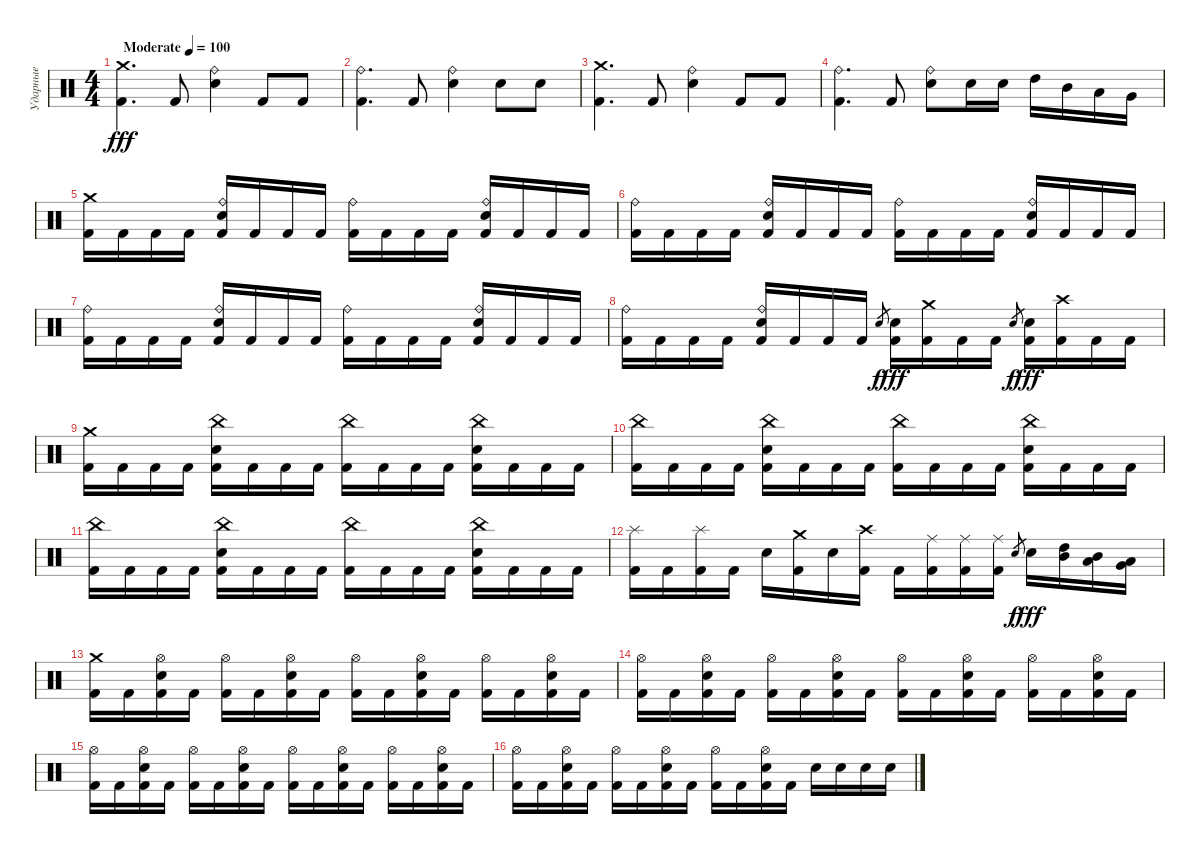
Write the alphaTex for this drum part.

\track ("Ударные" "Ударные") {instrument percussion}
\staff {score}
\articulation defaults
\ts (4 4)
\tempo (100 "Moderate")
\clef neutral
\ks c
("Crash medium (hit)" "Kick (hit) 2").4{d dy fff} "Kick (hit) 2".8 ("Ride (bell)" "Electric Snare (hit)").4 "Kick (hit) 2".8 "Kick (hit) 2".8 |
("Ride (bell)" "Kick (hit) 2").4{d} "Kick (hit) 2".8 ("Ride (bell)" "Electric Snare (hit)").4 "Electric Snare (hit)".8 "Electric Snare (hit)".8 |
("Crash medium (hit)" "Kick (hit) 2").4{d} "Kick (hit) 2".8 ("Ride (bell)" "Electric Snare (hit)").4 "Kick (hit) 2".8 "Kick (hit) 2".8 |
("Ride (bell)" "Kick (hit) 2").4{d} "Kick (hit) 2".8 ("Ride (bell)" "Electric Snare (hit)").8 "Electric Snare (hit)".16 "Electric Snare (hit)".16 "High Tom (hit)".16 "Mid Tom (hit)".16 "Low Tom (hit)".16 "Very Low Tom (hit)".16 |
("Crash medium (hit)" "Kick (hit) 2").16 "Kick (hit) 2".16 "Kick (hit) 2".16 "Kick (hit) 2".16 ("Ride (bell)" "Electric Snare (hit)" "Kick (hit) 2").16 "Kick (hit) 2".16 "Kick (hit) 2".16 "Kick (hit) 2".16 ("Ride (bell)" "Kick (hit) 2").16 "Kick (hit) 2".16 "Kick (hit) 2".16 "Kick (hit) 2".16 ("Ride (bell)" "Electric Snare (hit)" "Kick (hit) 2").16 "Kick (hit) 2".16 "Kick (hit) 2".16 "Kick (hit) 2".16 |
("Ride (bell)" "Kick (hit) 2").16 "Kick (hit) 2".16 "Kick (hit) 2".16 "Kick (hit) 2".16 ("Ride (bell)" "Electric Snare (hit)" "Kick (hit) 2").16 "Kick (hit) 2".16 "Kick (hit) 2".16 "Kick (hit) 2".16 ("Ride (bell)" "Kick (hit) 2").16 "Kick (hit) 2".16 "Kick (hit) 2".16 "Kick (hit) 2".16 ("Ride (bell)" "Electric Snare (hit)" "Kick (hit) 2").16 "Kick (hit) 2".16 "Kick (hit) 2".16 "Kick (hit) 2".16 |
("Ride (bell)" "Kick (hit) 2").16 "Kick (hit) 2".16 "Kick (hit) 2".16 "Kick (hit) 2".16 ("Ride (bell)" "Electric Snare (hit)" "Kick (hit) 2").16 "Kick (hit) 2".16 "Kick (hit) 2".16 "Kick (hit) 2".16 ("Ride (bell)" "Kick (hit) 2").16 "Kick (hit) 2".16 "Kick (hit) 2".16 "Kick (hit) 2".16 ("Ride (bell)" "Electric Snare (hit)" "Kick (hit) 2").16 "Kick (hit) 2".16 "Kick (hit) 2".16 "Kick (hit) 2".16 |
("Ride (bell)" "Kick (hit) 2").16 "Kick (hit) 2".16 "Kick (hit) 2".16 "Kick (hit) 2".16 ("Ride (bell)" "Electric Snare (hit)" "Kick (hit) 2").16 "Kick (hit) 2".16 "Kick (hit) 2".16 "Kick (hit) 2".16 "Electric Snare (hit)".8{gr dy f} ("Electric Snare (hit)" "Kick (hit) 2").16{dy fff} ("Crash medium (hit)" "Kick (hit) 2").16 "Kick (hit) 2".16 "Kick (hit) 2".16 "Electric Snare (hit)".8{gr dy f} ("Electric Snare (hit)" "Kick (hit) 2").16{dy fff} ("Crash high (hit)" "Kick (hit) 2").16 "Kick (hit) 2".16 "Kick (hit) 2".16 |
("Crash medium (hit)" "Kick (hit) 2").16 "Kick (hit) 2".16 "Kick (hit) 2".16 "Kick (hit) 2".16 ("China (hit)" "Electric Snare (hit)" "Kick (hit) 2").16 "Kick (hit) 2".16 "Kick (hit) 2".16 "Kick (hit) 2".16 ("China (hit)" "Kick (hit) 2").16 "Kick (hit) 2".16 "Kick (hit) 2".16 "Kick (hit) 2".16 ("China (hit)" "Electric Snare (hit)" "Kick (hit) 2").16 "Kick (hit) 2".16 "Kick (hit) 2".16 "Kick (hit) 2".16 |
("China (hit)" "Kick (hit) 2").16 "Kick (hit) 2".16 "Kick (hit) 2".16 "Kick (hit) 2".16 ("China (hit)" "Electric Snare (hit)" "Kick (hit) 2").16 "Kick (hit) 2".16 "Kick (hit) 2".16 "Kick (hit) 2".16 ("China (hit)" "Kick (hit) 2").16 "Kick (hit) 2".16 "Kick (hit) 2".16 "Kick (hit) 2".16 ("China (hit)" "Electric Snare (hit)" "Kick (hit) 2").16 "Kick (hit) 2".16 "Kick (hit) 2".16 "Kick (hit) 2".16 |
("China (hit)" "Kick (hit) 2").16 "Kick (hit) 2".16 "Kick (hit) 2".16 "Kick (hit) 2".16 ("China (hit)" "Electric Snare (hit)" "Kick (hit) 2").16 "Kick (hit) 2".16 "Kick (hit) 2".16 "Kick (hit) 2".16 ("China (hit)" "Kick (hit) 2").16 "Kick (hit) 2".16 "Kick (hit) 2".16 "Kick (hit) 2".16 ("China (hit)" "Electric Snare (hit)" "Kick (hit) 2").16 "Kick (hit) 2".16 "Kick (hit) 2".16 "Kick (hit) 2".16 |
("Splash (hit)" "Kick (hit) 2").16 "Kick (hit) 2".16 ("Splash (hit)" "Kick (hit) 2").16 "Kick (hit) 2".16 "Electric Snare (hit)".16 ("Crash medium (hit)" "Kick (hit) 2").16 "Electric Snare (hit)".16 ("Crash high (hit)" "Kick (hit) 2").16 "Kick (hit) 2".16 ("Ride (middle)" "Kick (hit) 2").16 ("Ride (middle)" "Kick (hit) 2").16 ("Ride (middle)" "Kick (hit) 2").16 "Electric Snare (hit)".8{gr dy f} "Electric Snare (hit)".16{dy fff} ("High Tom (hit)" "Mid Tom (hit)").16 ("Mid Tom (hit)" "Low Tom (hit)").16 ("Low Tom (hit)" "Very Low Tom (hit)").16 |
("Crash medium (hit)" "Kick (hit) 2").16 "Kick (hit) 2".16 ("Hi-Hat (open)" "Electric Snare (hit)" "Kick (hit) 2").16 "Kick (hit) 2".16 ("Hi-Hat (open)" "Kick (hit) 2").16 "Kick (hit) 2".16 ("Hi-Hat (open)" "Electric Snare (hit)" "Kick (hit) 2").16 "Kick (hit) 2".16 ("Hi-Hat (open)" "Kick (hit) 2").16 "Kick (hit) 2".16 ("Hi-Hat (open)" "Electric Snare (hit)" "Kick (hit) 2").16 "Kick (hit) 2".16 ("Hi-Hat (open)" "Kick (hit) 2").16 "Kick (hit) 2".16 ("Hi-Hat (open)" "Electric Snare (hit)" "Kick (hit) 2").16 "Kick (hit) 2".16 |
("Hi-Hat (open)" "Kick (hit) 2").16 "Kick (hit) 2".16 ("Hi-Hat (open)" "Electric Snare (hit)" "Kick (hit) 2").16 "Kick (hit) 2".16 ("Hi-Hat (open)" "Kick (hit) 2").16 "Kick (hit) 2".16 ("Hi-Hat (open)" "Electric Snare (hit)" "Kick (hit) 2").16 "Kick (hit) 2".16 ("Hi-Hat (open)" "Kick (hit) 2").16 "Kick (hit) 2".16 ("Hi-Hat (open)" "Electric Snare (hit)" "Kick (hit) 2").16 "Kick (hit) 2".16 ("Hi-Hat (open)" "Kick (hit) 2").16 "Kick (hit) 2".16 ("Hi-Hat (open)" "Electric Snare (hit)" "Kick (hit) 2").16 "Kick (hit) 2".16 |
("Hi-Hat (open)" "Kick (hit) 2").16 "Kick (hit) 2".16 ("Hi-Hat (open)" "Electric Snare (hit)" "Kick (hit) 2").16 "Kick (hit) 2".16 ("Hi-Hat (open)" "Kick (hit) 2").16 "Kick (hit) 2".16 ("Hi-Hat (open)" "Electric Snare (hit)" "Kick (hit) 2").16 "Kick (hit) 2".16 ("Hi-Hat (open)" "Kick (hit) 2").16 "Kick (hit) 2".16 ("Hi-Hat (open)" "Electric Snare (hit)" "Kick (hit) 2").16 "Kick (hit) 2".16 ("Hi-Hat (open)" "Kick (hit) 2").16 "Kick (hit) 2".16 ("Hi-Hat (open)" "Electric Snare (hit)" "Kick (hit) 2").16 "Kick (hit) 2".16 |
("Hi-Hat (open)" "Kick (hit) 2").16 "Kick (hit) 2".16 ("Hi-Hat (open)" "Electric Snare (hit)" "Kick (hit) 2").16 "Kick (hit) 2".16 ("Hi-Hat (open)" "Kick (hit) 2").16 "Kick (hit) 2".16 ("Hi-Hat (open)" "Electric Snare (hit)" "Kick (hit) 2").16 "Kick (hit) 2".16 ("Hi-Hat (open)" "Kick (hit) 2").16 "Kick (hit) 2".16 ("Hi-Hat (open)" "Electric Snare (hit)" "Kick (hit) 2").16 "Kick (hit) 2".16 "Electric Snare (hit)".16 "Electric Snare (hit)".16 "Electric Snare (hit)".16 "Electric Snare (hit)".16
